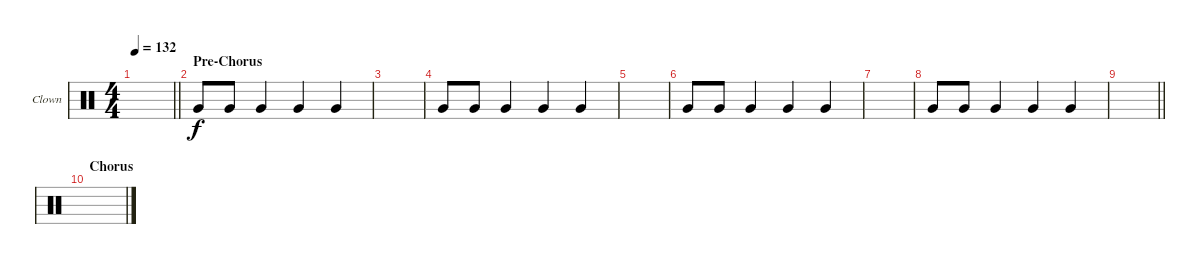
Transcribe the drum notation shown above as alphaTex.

\bracketExtendMode groupsimilarinstruments
\firstSystemTrackNameOrientation horizontal
\otherSystemsTrackNameOrientation horizontal
\track ("Clown" "Clown") {instrument percussion}
\staff {score}
\articulation defaults
\ts (4 4)
\tempo 132
\clef neutral
\barLineRight lightlight
\ks c
|
\section ("" "Pre-Chorus")
"Very Low Tom (hit)".8 "Very Low Tom (hit)".8 "Very Low Tom (hit)".4 "Very Low Tom (hit)".4 "Very Low Tom (hit)".4 |
|
"Very Low Tom (hit)".8 "Very Low Tom (hit)".8 "Very Low Tom (hit)".4 "Very Low Tom (hit)".4 "Very Low Tom (hit)".4 |
|
"Very Low Tom (hit)".8 "Very Low Tom (hit)".8 "Very Low Tom (hit)".4 "Very Low Tom (hit)".4 "Very Low Tom (hit)".4 |
|
"Very Low Tom (hit)".8 "Very Low Tom (hit)".8 "Very Low Tom (hit)".4 "Very Low Tom (hit)".4 "Very Low Tom (hit)".4 |
\barLineRight lightlight
|
\section ("" "Chorus")
